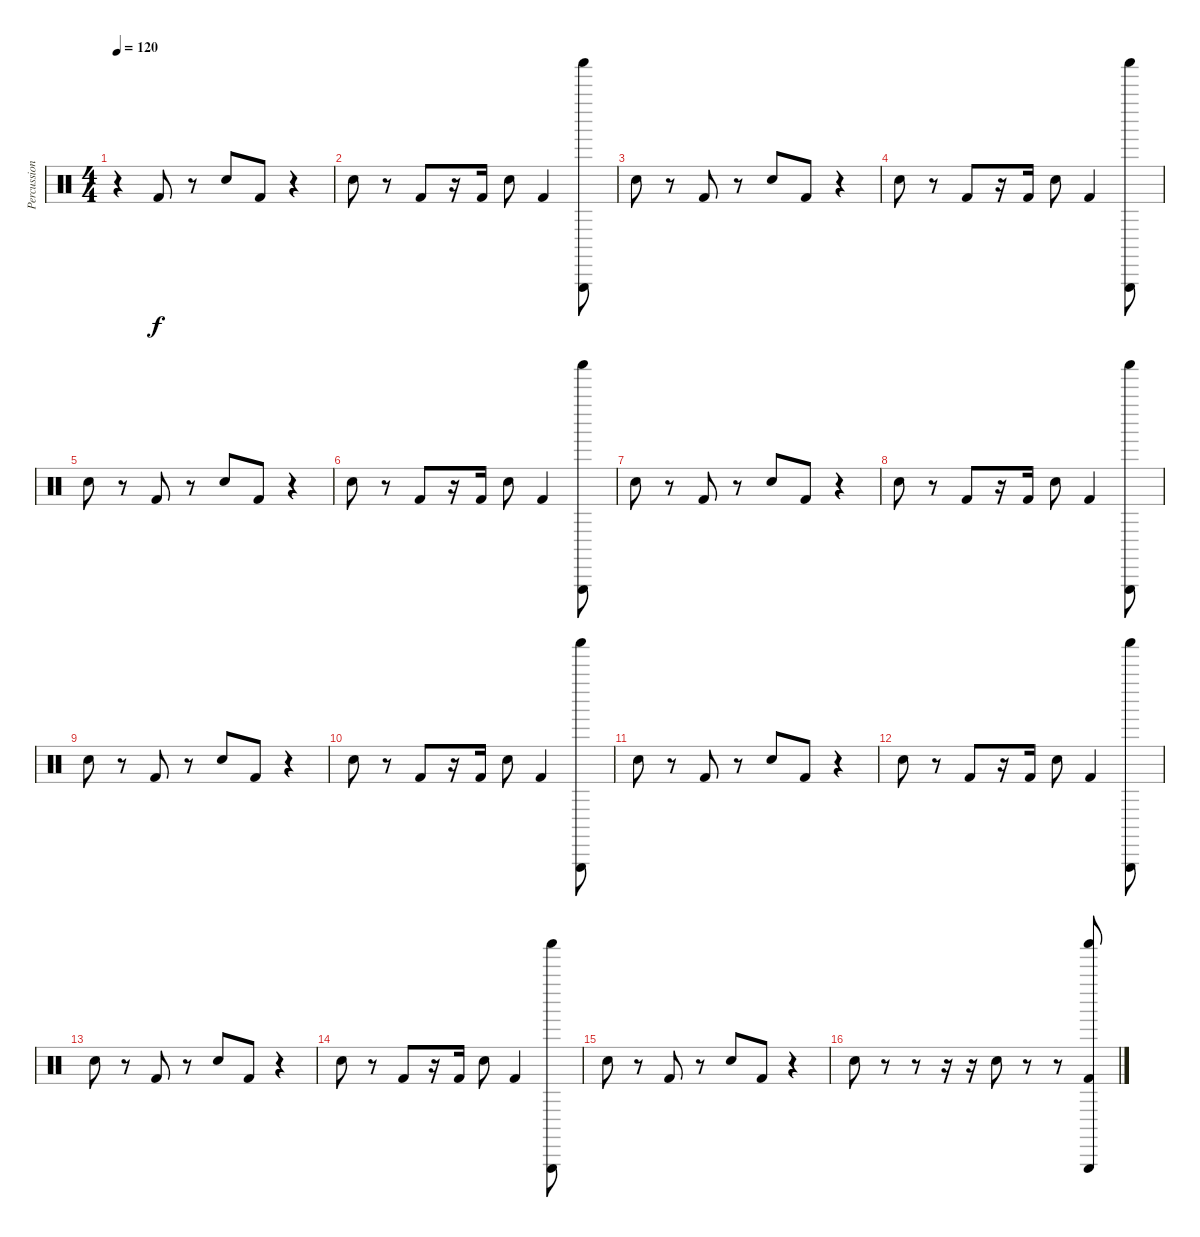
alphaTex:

\track ("Percussion" "Percussion") {instrument percussion}
\staff {score}
\articulation defaults
\ts (4 4)
\tempo 120
\clef neutral
\ks c
r.4{dy f} "Kick (hit) 2".8 r.8 "Hand Clap (hit)".8 "Kick (hit) 2".8 r.4 |
"Hand Clap (hit)".8 r.8 "Kick (hit) 2".8 r.16 "Kick (hit) 2".16 "Hand Clap (hit)".8 "Kick (hit) 2".4 ("Shaker (hit)" "Triangle (hit)").8 |
"Hand Clap (hit)".8 r.8 "Kick (hit) 2".8 r.8 "Hand Clap (hit)".8 "Kick (hit) 2".8 r.4 |
"Hand Clap (hit)".8 r.8 "Kick (hit) 2".8 r.16 "Kick (hit) 2".16 "Hand Clap (hit)".8 "Kick (hit) 2".4 ("Shaker (hit)" "Triangle (hit)").8 |
"Hand Clap (hit)".8 r.8 "Kick (hit) 2".8 r.8 "Hand Clap (hit)".8 "Kick (hit) 2".8 r.4 |
"Hand Clap (hit)".8 r.8 "Kick (hit) 2".8 r.16 "Kick (hit) 2".16 "Hand Clap (hit)".8 "Kick (hit) 2".4 ("Shaker (hit)" "Triangle (hit)").8 |
"Hand Clap (hit)".8 r.8 "Kick (hit) 2".8 r.8 "Hand Clap (hit)".8 "Kick (hit) 2".8 r.4 |
"Hand Clap (hit)".8 r.8 "Kick (hit) 2".8 r.16 "Kick (hit) 2".16 "Hand Clap (hit)".8 "Kick (hit) 2".4 ("Shaker (hit)" "Triangle (hit)").8 |
"Hand Clap (hit)".8 r.8 "Kick (hit) 2".8 r.8 "Hand Clap (hit)".8 "Kick (hit) 2".8 r.4 |
"Hand Clap (hit)".8 r.8 "Kick (hit) 2".8 r.16 "Kick (hit) 2".16 "Hand Clap (hit)".8 "Kick (hit) 2".4 ("Shaker (hit)" "Triangle (hit)").8 |
"Hand Clap (hit)".8 r.8 "Kick (hit) 2".8 r.8 "Hand Clap (hit)".8 "Kick (hit) 2".8 r.4 |
"Hand Clap (hit)".8 r.8 "Kick (hit) 2".8 r.16 "Kick (hit) 2".16 "Hand Clap (hit)".8 "Kick (hit) 2".4 ("Shaker (hit)" "Triangle (hit)").8 |
"Hand Clap (hit)".8 r.8 "Kick (hit) 2".8 r.8 "Hand Clap (hit)".8 "Kick (hit) 2".8 r.4 |
"Hand Clap (hit)".8 r.8 "Kick (hit) 2".8 r.16 "Kick (hit) 2".16 "Hand Clap (hit)".8 "Kick (hit) 2".4 ("Shaker (hit)" "Triangle (hit)").8 |
"Hand Clap (hit)".8 r.8 "Kick (hit) 2".8 r.8 "Hand Clap (hit)".8 "Kick (hit) 2".8 r.4 |
"Hand Clap (hit)".8 r.8 r.8 r.16 r.16 "Hand Clap (hit)".8 r.8 r.8 ("Shaker (hit)" "Triangle (hit)" "Kick (hit) 2").8
